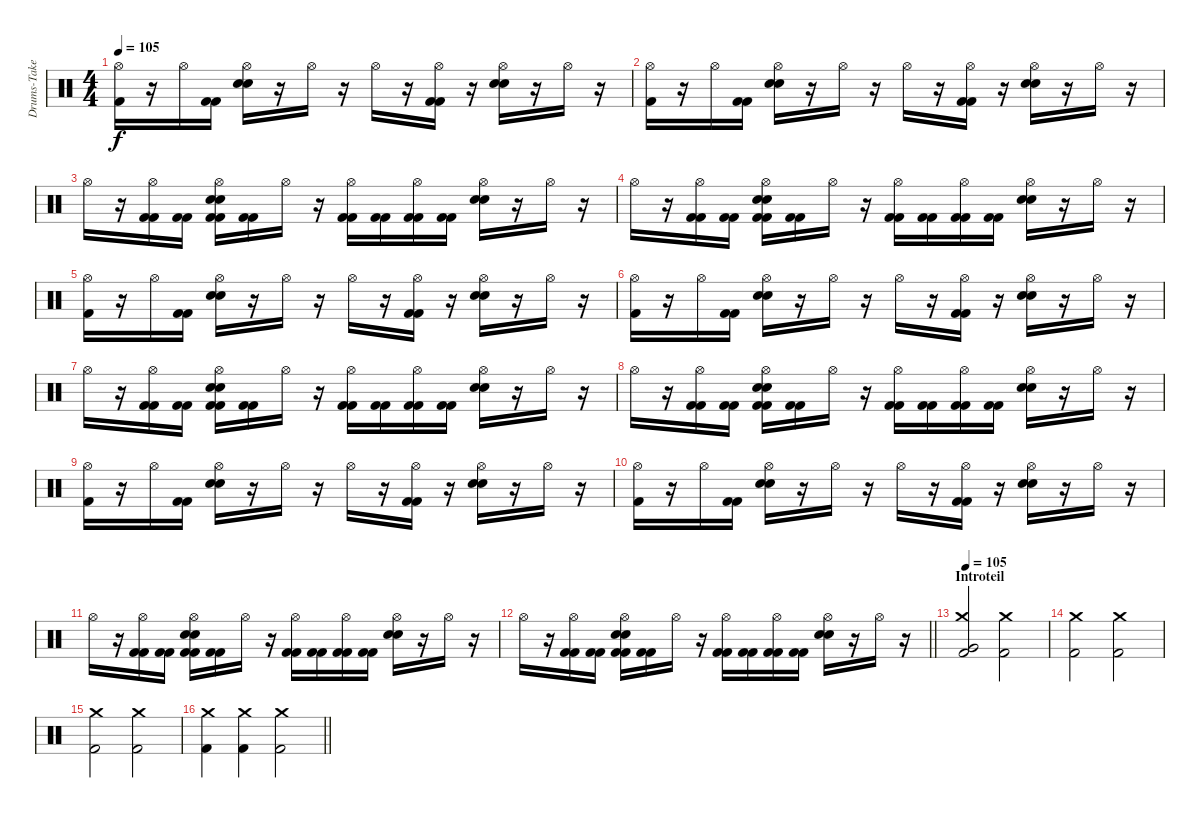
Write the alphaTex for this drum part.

\track ("Drums-Take the midi one!" "Drums-Take") {instrument percussion}
\staff {score}
\articulation defaults
\ts (4 4)
\tempo 105
\clef neutral
\ks c
("Kick (hit) 2" "Hi-Hat (open)").16{dy f} r.16 "Hi-Hat (open)".16 ("Kick (hit) 2" "Kick (hit) 2").16 ("Hi-Hat (open)" "Snare (hit) 2" "Snare (hit) 2").16 r.16 "Hi-Hat (open)".16 r.16 "Hi-Hat (open)".16 r.16 ("Kick (hit) 2" "Kick (hit) 2" "Hi-Hat (open)").16 r.16 ("Hi-Hat (open)" "Electric Snare (hit)" "Electric Snare (hit)").16 r.16 "Hi-Hat (open)".16 r.16 |
("Kick (hit) 2" "Hi-Hat (open)").16 r.16 "Hi-Hat (open)".16 ("Kick (hit) 2" "Kick (hit) 2").16 ("Hi-Hat (open)" "Snare (hit) 2" "Snare (hit) 2").16 r.16 "Hi-Hat (open)".16 r.16 "Hi-Hat (open)".16 r.16 ("Kick (hit) 2" "Kick (hit) 2" "Hi-Hat (open)").16 r.16 ("Hi-Hat (open)" "Electric Snare (hit)" "Electric Snare (hit)").16 r.16 "Hi-Hat (open)".16 r.16 |
"Hi-Hat (open)".16 r.16 ("Kick (hit) 2" "Kick (hit) 2" "Hi-Hat (open)").16 ("Kick (hit) 2" "Kick (hit) 2").16 ("Kick (hit) 2" "Kick (hit) 2" "Hi-Hat (open)" "Electric Snare (hit)" "Electric Snare (hit)").16 ("Kick (hit) 2" "Kick (hit) 2").16 "Hi-Hat (open)".16 r.16 ("Kick (hit) 2" "Kick (hit) 2" "Hi-Hat (open)").16 ("Kick (hit) 2" "Kick (hit) 2").16 ("Kick (hit) 2" "Kick (hit) 2" "Hi-Hat (open)").16 ("Kick (hit) 2" "Kick (hit) 2").16 ("Hi-Hat (open)" "Electric Snare (hit)" "Electric Snare (hit)").16 r.16 "Hi-Hat (open)".16 r.16 |
"Hi-Hat (open)".16 r.16 ("Kick (hit) 2" "Kick (hit) 2" "Hi-Hat (open)").16 ("Kick (hit) 2" "Kick (hit) 2").16 ("Kick (hit) 2" "Kick (hit) 2" "Hi-Hat (open)" "Electric Snare (hit)" "Electric Snare (hit)").16 ("Kick (hit) 2" "Kick (hit) 2").16 "Hi-Hat (open)".16 r.16 ("Kick (hit) 2" "Kick (hit) 2" "Hi-Hat (open)").16 ("Kick (hit) 2" "Kick (hit) 2").16 ("Kick (hit) 2" "Kick (hit) 2" "Hi-Hat (open)").16 ("Kick (hit) 2" "Kick (hit) 2").16 ("Hi-Hat (open)" "Electric Snare (hit)" "Electric Snare (hit)").16 r.16 "Hi-Hat (open)".16 r.16 |
("Kick (hit) 2" "Hi-Hat (open)").16 r.16 "Hi-Hat (open)".16 ("Kick (hit) 2" "Kick (hit) 2").16 ("Hi-Hat (open)" "Snare (hit) 2" "Snare (hit) 2").16 r.16 "Hi-Hat (open)".16 r.16 "Hi-Hat (open)".16 r.16 ("Kick (hit) 2" "Kick (hit) 2" "Hi-Hat (open)").16 r.16 ("Hi-Hat (open)" "Electric Snare (hit)" "Electric Snare (hit)").16 r.16 "Hi-Hat (open)".16 r.16 |
("Kick (hit) 2" "Hi-Hat (open)").16 r.16 "Hi-Hat (open)".16 ("Kick (hit) 2" "Kick (hit) 2").16 ("Hi-Hat (open)" "Snare (hit) 2" "Snare (hit) 2").16 r.16 "Hi-Hat (open)".16 r.16 "Hi-Hat (open)".16 r.16 ("Kick (hit) 2" "Kick (hit) 2" "Hi-Hat (open)").16 r.16 ("Hi-Hat (open)" "Electric Snare (hit)" "Electric Snare (hit)").16 r.16 "Hi-Hat (open)".16 r.16 |
"Hi-Hat (open)".16 r.16 ("Kick (hit) 2" "Kick (hit) 2" "Hi-Hat (open)").16 ("Kick (hit) 2" "Kick (hit) 2").16 ("Kick (hit) 2" "Kick (hit) 2" "Hi-Hat (open)" "Electric Snare (hit)" "Electric Snare (hit)").16 ("Kick (hit) 2" "Kick (hit) 2").16 "Hi-Hat (open)".16 r.16 ("Kick (hit) 2" "Kick (hit) 2" "Hi-Hat (open)").16 ("Kick (hit) 2" "Kick (hit) 2").16 ("Kick (hit) 2" "Kick (hit) 2" "Hi-Hat (open)").16 ("Kick (hit) 2" "Kick (hit) 2").16 ("Hi-Hat (open)" "Electric Snare (hit)" "Electric Snare (hit)").16 r.16 "Hi-Hat (open)".16 r.16 |
"Hi-Hat (open)".16 r.16 ("Kick (hit) 2" "Kick (hit) 2" "Hi-Hat (open)").16 ("Kick (hit) 2" "Kick (hit) 2").16 ("Kick (hit) 2" "Kick (hit) 2" "Hi-Hat (open)" "Electric Snare (hit)" "Electric Snare (hit)").16 ("Kick (hit) 2" "Kick (hit) 2").16 "Hi-Hat (open)".16 r.16 ("Kick (hit) 2" "Kick (hit) 2" "Hi-Hat (open)").16 ("Kick (hit) 2" "Kick (hit) 2").16 ("Kick (hit) 2" "Kick (hit) 2" "Hi-Hat (open)").16 ("Kick (hit) 2" "Kick (hit) 2").16 ("Hi-Hat (open)" "Electric Snare (hit)" "Electric Snare (hit)").16 r.16 "Hi-Hat (open)".16 r.16 |
("Kick (hit) 2" "Hi-Hat (open)").16 r.16 "Hi-Hat (open)".16 ("Kick (hit) 2" "Kick (hit) 2").16 ("Hi-Hat (open)" "Snare (hit) 2" "Snare (hit) 2").16 r.16 "Hi-Hat (open)".16 r.16 "Hi-Hat (open)".16 r.16 ("Kick (hit) 2" "Kick (hit) 2" "Hi-Hat (open)").16 r.16 ("Hi-Hat (open)" "Electric Snare (hit)" "Electric Snare (hit)").16 r.16 "Hi-Hat (open)".16 r.16 |
("Kick (hit) 2" "Hi-Hat (open)").16 r.16 "Hi-Hat (open)".16 ("Kick (hit) 2" "Kick (hit) 2").16 ("Hi-Hat (open)" "Snare (hit) 2" "Snare (hit) 2").16 r.16 "Hi-Hat (open)".16 r.16 "Hi-Hat (open)".16 r.16 ("Kick (hit) 2" "Kick (hit) 2" "Hi-Hat (open)").16 r.16 ("Hi-Hat (open)" "Electric Snare (hit)" "Electric Snare (hit)").16 r.16 "Hi-Hat (open)".16 r.16 |
"Hi-Hat (open)".16 r.16 ("Kick (hit) 2" "Kick (hit) 2" "Hi-Hat (open)").16 ("Kick (hit) 2" "Kick (hit) 2").16 ("Kick (hit) 2" "Kick (hit) 2" "Hi-Hat (open)" "Electric Snare (hit)" "Electric Snare (hit)").16 ("Kick (hit) 2" "Kick (hit) 2").16 "Hi-Hat (open)".16 r.16 ("Kick (hit) 2" "Kick (hit) 2" "Hi-Hat (open)").16 ("Kick (hit) 2" "Kick (hit) 2").16 ("Kick (hit) 2" "Kick (hit) 2" "Hi-Hat (open)").16 ("Kick (hit) 2" "Kick (hit) 2").16 ("Hi-Hat (open)" "Electric Snare (hit)" "Electric Snare (hit)").16 r.16 "Hi-Hat (open)".16 r.16 |
\barLineRight lightlight "Hi-Hat (open)".16
r.16 ("Kick (hit) 2" "Kick (hit) 2" "Hi-Hat (open)").16 ("Kick (hit) 2" "Kick (hit) 2").16 ("Kick (hit) 2" "Kick (hit) 2" "Hi-Hat (open)" "Electric Snare (hit)" "Electric Snare (hit)").16 ("Kick (hit) 2" "Kick (hit) 2").16 "Hi-Hat (open)".16 r.16 ("Kick (hit) 2" "Kick (hit) 2" "Hi-Hat (open)").16 ("Kick (hit) 2" "Kick (hit) 2").16 ("Kick (hit) 2" "Kick (hit) 2" "Hi-Hat (open)").16 ("Kick (hit) 2" "Kick (hit) 2").16 ("Hi-Hat (open)" "Electric Snare (hit)" "Electric Snare (hit)").16 r.16 "Hi-Hat (open)".16 r.16 |
\section ("" "Introteil")
\tempo 105
("Kick (hit) 2" "Crash medium (hit)" "Very Low Tom (hit)").2 ("Kick (hit) 2" "Crash medium (hit)").2 |
("Kick (hit) 2" "Crash medium (hit)").2 ("Kick (hit) 2" "Crash medium (hit)").2 |
("Kick (hit) 2" "Crash medium (hit)").2 ("Kick (hit) 2" "Crash medium (hit)").2 |
\barLineRight lightlight
("Kick (hit) 2" "Crash medium (hit)").4 ("Kick (hit) 2" "Crash medium (hit)").4 ("Kick (hit) 2" "Crash medium (hit)").2
